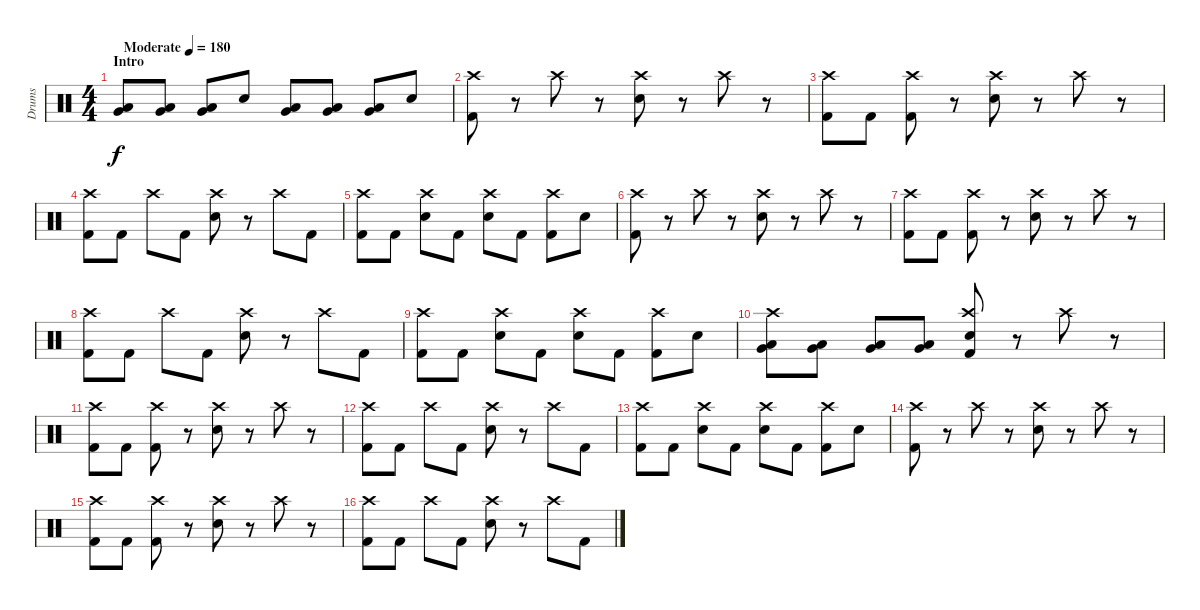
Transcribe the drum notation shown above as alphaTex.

\track ("Drums" "Drums") {instrument percussion}
\staff {score}
\articulation defaults
\ts (4 4)
\section ("" "Intro")
\tempo (180 "Moderate")
\clef neutral
\ks c
("Low Floor Tom (hit)" "Very Low Tom (hit)").8{dy f} ("Very Low Tom (hit)" "Low Floor Tom (hit)").8 ("Very Low Tom (hit)" "Low Floor Tom (hit)").8 "Electric Snare (hit)".8 ("Low Floor Tom (hit)" "Very Low Tom (hit)").8 ("Very Low Tom (hit)" "Low Floor Tom (hit)").8 ("Very Low Tom (hit)" "Low Floor Tom (hit)").8 "Electric Snare (hit)".8 |
("Crash high (hit)" "Kick (hit) 2").8 r.8 "Crash high (hit)".8 r.8 ("Crash high (hit)" "Electric Snare (hit)").8 r.8 "Crash high (hit)".8 r.8 |
("Crash high (hit)" "Kick (hit) 2").8 "Kick (hit) 2".8 ("Crash high (hit)" "Kick (hit) 2").8 r.8 ("Crash high (hit)" "Electric Snare (hit)").8 r.8 "Crash high (hit)".8 r.8 |
("Crash high (hit)" "Kick (hit) 2").8 "Kick (hit) 2".8 "Crash high (hit)".8 "Kick (hit) 2".8 ("Crash high (hit)" "Electric Snare (hit)").8 r.8 "Crash high (hit)".8 "Kick (hit) 2".8 |
("Crash high (hit)" "Kick (hit) 2").8 "Kick (hit) 2".8 ("Electric Snare (hit)" "Crash high (hit)").8 "Kick (hit) 2".8 ("Electric Snare (hit)" "Crash high (hit)").8 "Kick (hit) 2".8 ("Crash high (hit)" "Kick (hit) 2").8 "Electric Snare (hit)".8 |
("Crash high (hit)" "Kick (hit) 2").8 r.8 "Crash high (hit)".8 r.8 ("Crash high (hit)" "Electric Snare (hit)").8 r.8 "Crash high (hit)".8 r.8 |
("Crash high (hit)" "Kick (hit) 2").8 "Kick (hit) 2".8 ("Crash high (hit)" "Kick (hit) 2").8 r.8 ("Crash high (hit)" "Electric Snare (hit)").8 r.8 "Crash high (hit)".8 r.8 |
("Crash high (hit)" "Kick (hit) 2").8 "Kick (hit) 2".8 "Crash high (hit)".8 "Kick (hit) 2".8 ("Crash high (hit)" "Electric Snare (hit)").8 r.8 "Crash high (hit)".8 "Kick (hit) 2".8 |
("Crash high (hit)" "Kick (hit) 2").8 "Kick (hit) 2".8 ("Electric Snare (hit)" "Crash high (hit)").8 "Kick (hit) 2".8 ("Electric Snare (hit)" "Crash high (hit)").8 "Kick (hit) 2".8 ("Crash high (hit)" "Kick (hit) 2").8 "Electric Snare (hit)".8 |
("Crash high (hit)" "Very Low Tom (hit)" "Low Floor Tom (hit)").8 ("Very Low Tom (hit)" "Low Floor Tom (hit)").8 ("Very Low Tom (hit)" "Low Floor Tom (hit)").8 ("Very Low Tom (hit)" "Low Floor Tom (hit)").8 ("Crash high (hit)" "Electric Snare (hit)" "Kick (hit) 2").8 r.8 "Crash high (hit)".8 r.8 |
("Crash high (hit)" "Kick (hit) 2").8 "Kick (hit) 2".8 ("Crash high (hit)" "Kick (hit) 2").8 r.8 ("Crash high (hit)" "Electric Snare (hit)").8 r.8 "Crash high (hit)".8 r.8 |
("Crash high (hit)" "Kick (hit) 2").8 "Kick (hit) 2".8 "Crash high (hit)".8 "Kick (hit) 2".8 ("Crash high (hit)" "Electric Snare (hit)").8 r.8 "Crash high (hit)".8 "Kick (hit) 2".8 |
("Crash high (hit)" "Kick (hit) 2").8 "Kick (hit) 2".8 ("Electric Snare (hit)" "Crash high (hit)").8 "Kick (hit) 2".8 ("Electric Snare (hit)" "Crash high (hit)").8 "Kick (hit) 2".8 ("Crash high (hit)" "Kick (hit) 2").8 "Electric Snare (hit)".8 |
("Crash high (hit)" "Kick (hit) 2").8 r.8 "Crash high (hit)".8 r.8 ("Crash high (hit)" "Electric Snare (hit)").8 r.8 "Crash high (hit)".8 r.8 |
("Crash high (hit)" "Kick (hit) 2").8 "Kick (hit) 2".8 ("Crash high (hit)" "Kick (hit) 2").8 r.8 ("Crash high (hit)" "Electric Snare (hit)").8 r.8 "Crash high (hit)".8 r.8 |
("Crash high (hit)" "Kick (hit) 2").8 "Kick (hit) 2".8 "Crash high (hit)".8 "Kick (hit) 2".8 ("Crash high (hit)" "Electric Snare (hit)").8 r.8 "Crash high (hit)".8 "Kick (hit) 2".8
